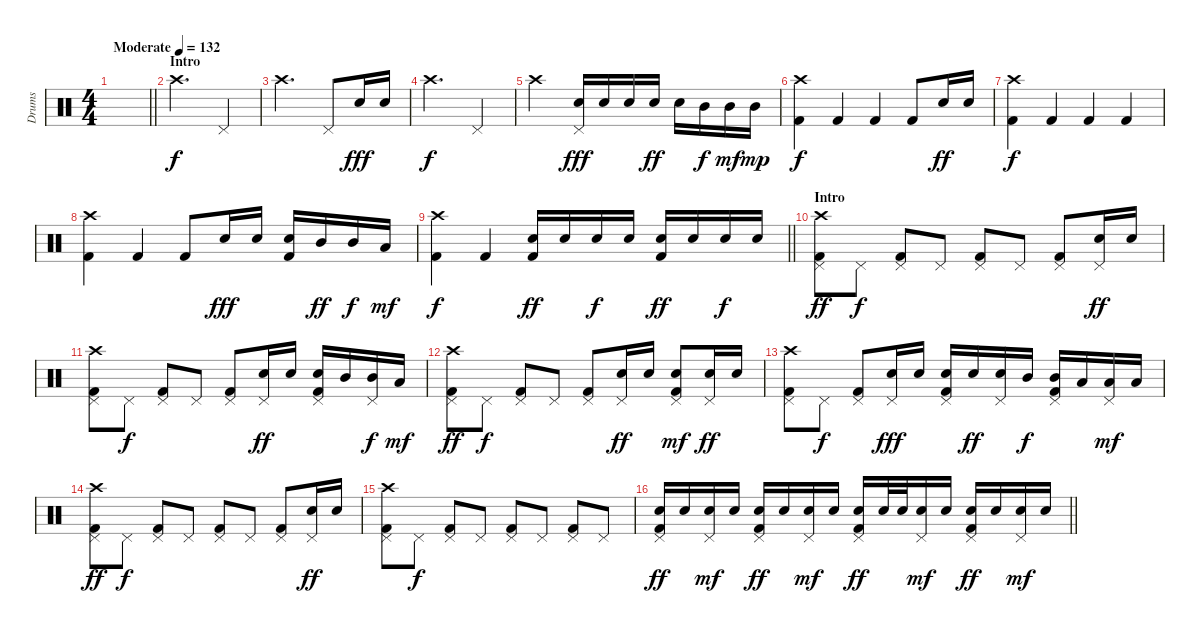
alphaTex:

\track ("Drums" "Drums") {instrument percussion}
\staff {score}
\articulation defaults
\ts (4 4)
\tempo (132 "Moderate")
\clef neutral
\barLineRight lightlight
\ks c
|
\section ("" "Intro")
"Crash high (hit)".2{d} "Pedal Hi-Hat (hit)".4 |
"Crash high (hit)".2{d} "Pedal Hi-Hat (hit)".8 "Snare (hit) 2".16{dy fff} "Snare (hit) 2".16 |
"Crash high (hit)".2{d dy f} "Pedal Hi-Hat (hit)".4 |
"Crash high (hit)".2 ("Pedal Hi-Hat (hit)" "Electric Snare (hit)").16{dy fff} "Electric Snare (hit)".16 "Electric Snare (hit)".16 "Snare (hit) 2".16{dy ff} "Snare (hit) 2".16 "Mid Tom (hit)".16{dy f} "Mid Tom (hit)".16{dy mf} "Mid Tom (hit)".16{dy mp} |
("Crash high (hit)" "Kick (hit) 2").4{dy f} "Kick (hit) 2".4 "Kick (hit) 2".4 "Kick (hit) 2".8 "Snare (hit) 2".16{dy ff} "Snare (hit) 2".16 |
("Crash high (hit)" "Kick (hit) 2").4{dy f} "Kick (hit) 2".4 "Kick (hit) 2".4 "Kick (hit) 2".4 |
("Crash high (hit)" "Kick (hit) 2").4 "Kick (hit) 2".4 "Kick (hit) 2".8 "Snare (hit) 2".16{dy fff} "Snare (hit) 2".16 ("Snare (hit) 2" "Kick (hit) 2").16 "Mid Tom (hit)".16{dy ff} "Mid Tom (hit)".16{dy f} "Low Tom (hit)".16{dy mf} |
\barLineRight lightlight
("Crash high (hit)" "Kick (hit) 2").4{dy f} "Kick (hit) 2".4 ("Snare (hit) 2" "Kick (hit) 2").16{dy ff} "Snare (hit) 2".16 "Electric Snare (hit)".16{dy f} "Electric Snare (hit)".16 ("Snare (hit) 2" "Kick (hit) 2").16{dy ff} "Snare (hit) 2".16 "Electric Snare (hit)".16{dy f} "Electric Snare (hit)".16 |
\section ("" "Intro")
("Pedal Hi-Hat (hit)" "Crash high (hit)" "Kick (hit) 2").8{dy ff} "Pedal Hi-Hat (hit)".8{dy f} ("Pedal Hi-Hat (hit)" "Kick (hit) 2").8 "Pedal Hi-Hat (hit)".8 ("Pedal Hi-Hat (hit)" "Kick (hit) 2").8 "Pedal Hi-Hat (hit)".8 ("Pedal Hi-Hat (hit)" "Kick (hit) 2").8 ("Pedal Hi-Hat (hit)" "Snare (hit) 2").16{dy ff} "Snare (hit) 2".16 |
("Pedal Hi-Hat (hit)" "Crash high (hit)" "Kick (hit) 2").8 "Pedal Hi-Hat (hit)".8{dy f} ("Pedal Hi-Hat (hit)" "Kick (hit) 2").8 "Pedal Hi-Hat (hit)".8 ("Pedal Hi-Hat (hit)" "Kick (hit) 2").8 ("Pedal Hi-Hat (hit)" "Snare (hit) 2").16{dy ff} "Snare (hit) 2".16 ("Pedal Hi-Hat (hit)" "Snare (hit) 2" "Kick (hit) 2").16 "Mid Tom (hit)".16 ("Pedal Hi-Hat (hit)" "Mid Tom (hit)").16{dy f} "Low Tom (hit)".16{dy mf} |
("Pedal Hi-Hat (hit)" "Crash high (hit)" "Kick (hit) 2").8{dy ff} "Pedal Hi-Hat (hit)".8{dy f} ("Pedal Hi-Hat (hit)" "Kick (hit) 2").8 "Pedal Hi-Hat (hit)".8 ("Pedal Hi-Hat (hit)" "Kick (hit) 2").8 ("Pedal Hi-Hat (hit)" "Snare (hit) 2").16{dy ff} "Snare (hit) 2".16 ("Pedal Hi-Hat (hit)" "Electric Snare (hit)" "Kick (hit) 2").8{dy mf} ("Pedal Hi-Hat (hit)" "Snare (hit) 2").16{dy ff} "Snare (hit) 2".16 |
("Pedal Hi-Hat (hit)" "Crash high (hit)" "Kick (hit) 2").8 "Pedal Hi-Hat (hit)".8{dy f} ("Pedal Hi-Hat (hit)" "Kick (hit) 2").8 ("Pedal Hi-Hat (hit)" "Snare (hit) 2").16{dy fff} "Snare (hit) 2".16 ("Pedal Hi-Hat (hit)" "Snare (hit) 2" "Kick (hit) 2").16 "Electric Snare (hit)".16{dy ff} ("Pedal Hi-Hat (hit)" "Electric Snare (hit)").16 "Mid Tom (hit)".16{dy f} ("Pedal Hi-Hat (hit)" "Mid Tom (hit)" "Kick (hit) 2").16 "Low Tom (hit)".16 ("Pedal Hi-Hat (hit)" "Low Tom (hit)").16{dy mf} "Low Tom (hit)".16 |
("Pedal Hi-Hat (hit)" "Crash high (hit)" "Kick (hit) 2").8{dy ff} "Pedal Hi-Hat (hit)".8{dy f} ("Pedal Hi-Hat (hit)" "Kick (hit) 2").8 "Pedal Hi-Hat (hit)".8 ("Pedal Hi-Hat (hit)" "Kick (hit) 2").8 "Pedal Hi-Hat (hit)".8 ("Pedal Hi-Hat (hit)" "Kick (hit) 2").8 ("Pedal Hi-Hat (hit)" "Snare (hit) 2").16{dy ff} "Snare (hit) 2".16 |
("Pedal Hi-Hat (hit)" "Crash high (hit)" "Kick (hit) 2").8 "Pedal Hi-Hat (hit)".8{dy f} ("Pedal Hi-Hat (hit)" "Kick (hit) 2").8 "Pedal Hi-Hat (hit)".8 ("Pedal Hi-Hat (hit)" "Kick (hit) 2").8 "Pedal Hi-Hat (hit)".8 ("Pedal Hi-Hat (hit)" "Kick (hit) 2").8 "Pedal Hi-Hat (hit)".8 |
\barLineRight lightlight
("Pedal Hi-Hat (hit)" "Snare (hit) 2" "Kick (hit) 2").16{dy ff} "Snare (hit) 2".16 ("Pedal Hi-Hat (hit)" "Electric Snare (hit)").16{dy mf} "Electric Snare (hit)".16 ("Pedal Hi-Hat (hit)" "Snare (hit) 2" "Kick (hit) 2").16{dy ff} "Snare (hit) 2".16 ("Pedal Hi-Hat (hit)" "Electric Snare (hit)").16{dy mf} "Electric Snare (hit)".16 ("Pedal Hi-Hat (hit)" "Snare (hit) 2" "Kick (hit) 2").16{dy ff} "Snare (hit) 2".32 "Snare (hit) 2".32 ("Pedal Hi-Hat (hit)" "Electric Snare (hit)").16{dy mf} "Electric Snare (hit)".16 ("Pedal Hi-Hat (hit)" "Snare (hit) 2" "Kick (hit) 2").16{dy ff} "Snare (hit) 2".16 ("Pedal Hi-Hat (hit)" "Electric Snare (hit)").16{dy mf} "Electric Snare (hit)".16
